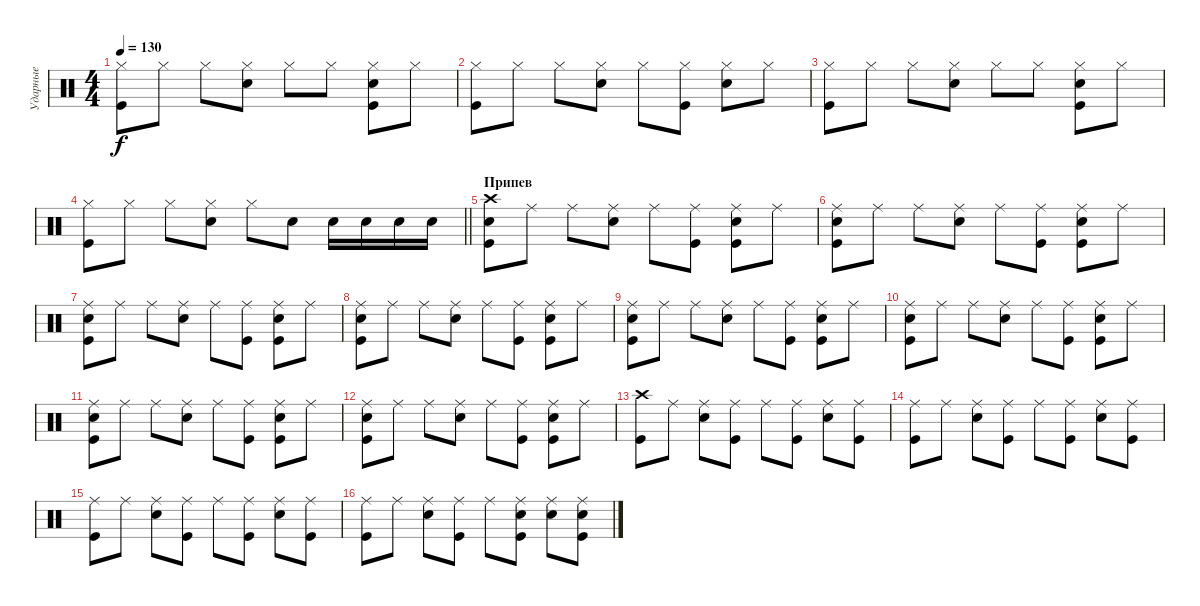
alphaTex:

\track ("Ударные" "Ударные") {instrument percussion}
\staff {score}
\articulation defaults
\ts (4 4)
\tempo 130
\clef neutral
\ks c
("Hi-Hat (closed)" "Kick (hit)").8{dy f} "Hi-Hat (closed)".8 "Hi-Hat (closed)".8 ("Hi-Hat (closed)" "Snare (hit) 2").8 "Hi-Hat (closed)".8 "Hi-Hat (closed)".8 ("Hi-Hat (closed)" "Snare (hit) 2" "Kick (hit)").8 "Hi-Hat (closed)".8 |
("Hi-Hat (closed)" "Kick (hit)").8 "Hi-Hat (closed)".8 "Hi-Hat (closed)".8 ("Hi-Hat (closed)" "Snare (hit) 2").8 "Hi-Hat (closed)".8 ("Hi-Hat (closed)" "Kick (hit)").8 ("Hi-Hat (closed)" "Snare (hit) 2").8 "Hi-Hat (closed)".8 |
("Hi-Hat (closed)" "Kick (hit)").8 "Hi-Hat (closed)".8 "Hi-Hat (closed)".8 ("Hi-Hat (closed)" "Snare (hit) 2").8 "Hi-Hat (closed)".8 "Hi-Hat (closed)".8 ("Hi-Hat (closed)" "Snare (hit) 2" "Kick (hit)").8 "Hi-Hat (closed)".8 |
\barLineRight lightlight
("Hi-Hat (closed)" "Kick (hit)").8 "Hi-Hat (closed)".8 "Hi-Hat (closed)".8 ("Hi-Hat (closed)" "Snare (hit) 2").8 "Hi-Hat (closed)".8 "Snare (hit) 2".8 "Snare (hit) 2".16 "Snare (hit) 2".16 "Snare (hit) 2".16 "Snare (hit) 2".16 |
\section ("" "Припев")
("Crash high (hit)" "Snare (hit) 2" "Kick (hit)").8 "Ride (middle)".8 "Ride (middle)".8 ("Ride (middle)" "Snare (hit) 2").8 "Ride (middle)".8 ("Ride (middle)" "Kick (hit)").8 ("Ride (middle)" "Snare (hit) 2" "Kick (hit)").8 "Ride (middle)".8 |
("Ride (middle)" "Snare (hit) 2" "Kick (hit)").8 "Ride (middle)".8 "Ride (middle)".8 ("Ride (middle)" "Snare (hit) 2").8 "Ride (middle)".8 ("Ride (middle)" "Kick (hit)").8 ("Ride (middle)" "Snare (hit) 2" "Kick (hit)").8 "Ride (middle)".8 |
("Ride (middle)" "Snare (hit) 2" "Kick (hit)").8 "Ride (middle)".8 "Ride (middle)".8 ("Ride (middle)" "Snare (hit) 2").8 "Ride (middle)".8 ("Ride (middle)" "Kick (hit)").8 ("Ride (middle)" "Snare (hit) 2" "Kick (hit)").8 "Ride (middle)".8 |
("Ride (middle)" "Snare (hit) 2" "Kick (hit)").8 "Ride (middle)".8 "Ride (middle)".8 ("Ride (middle)" "Snare (hit) 2").8 "Ride (middle)".8 ("Ride (middle)" "Kick (hit)").8 ("Ride (middle)" "Snare (hit) 2" "Kick (hit)").8 "Ride (middle)".8 |
("Ride (middle)" "Snare (hit) 2" "Kick (hit)").8 "Ride (middle)".8 "Ride (middle)".8 ("Ride (middle)" "Snare (hit) 2").8 "Ride (middle)".8 ("Ride (middle)" "Kick (hit)").8 ("Ride (middle)" "Snare (hit) 2" "Kick (hit)").8 "Ride (middle)".8 |
("Ride (middle)" "Snare (hit) 2" "Kick (hit)").8 "Ride (middle)".8 "Ride (middle)".8 ("Ride (middle)" "Snare (hit) 2").8 "Ride (middle)".8 ("Ride (middle)" "Kick (hit)").8 ("Ride (middle)" "Snare (hit) 2" "Kick (hit)").8 "Ride (middle)".8 |
("Ride (middle)" "Snare (hit) 2" "Kick (hit)").8 "Ride (middle)".8 "Ride (middle)".8 ("Ride (middle)" "Snare (hit) 2").8 "Ride (middle)".8 ("Ride (middle)" "Kick (hit)").8 ("Ride (middle)" "Snare (hit) 2" "Kick (hit)").8 "Ride (middle)".8 |
("Ride (middle)" "Snare (hit) 2" "Kick (hit)").8 "Ride (middle)".8 "Ride (middle)".8 ("Ride (middle)" "Snare (hit) 2").8 "Ride (middle)".8 ("Ride (middle)" "Kick (hit)").8 ("Ride (middle)" "Snare (hit) 2" "Kick (hit)").8 "Ride (middle)".8 |
("Crash high (hit)" "Kick (hit)").8 "Ride (middle)".8 ("Ride (middle)" "Snare (hit) 2").8 ("Ride (middle)" "Kick (hit)").8 "Ride (middle)".8 ("Ride (middle)" "Kick (hit)").8 ("Ride (middle)" "Snare (hit) 2").8 ("Ride (middle)" "Kick (hit)").8 |
("Ride (middle)" "Kick (hit)").8 "Ride (middle)".8 ("Ride (middle)" "Snare (hit) 2").8 ("Ride (middle)" "Kick (hit)").8 "Ride (middle)".8 ("Ride (middle)" "Kick (hit)").8 ("Ride (middle)" "Snare (hit) 2").8 ("Ride (middle)" "Kick (hit)").8 |
("Ride (middle)" "Kick (hit)").8 "Ride (middle)".8 ("Ride (middle)" "Snare (hit) 2").8 ("Ride (middle)" "Kick (hit)").8 "Ride (middle)".8 ("Ride (middle)" "Kick (hit)").8 ("Ride (middle)" "Snare (hit) 2").8 ("Ride (middle)" "Kick (hit)").8 |
("Ride (middle)" "Kick (hit)").8 "Ride (middle)".8 ("Ride (middle)" "Snare (hit) 2").8 ("Ride (middle)" "Kick (hit)").8 "Ride (middle)".8 ("Ride (middle)" "Snare (hit) 2" "Kick (hit)").8 ("Ride (middle)" "Snare (hit) 2").8 ("Ride (middle)" "Snare (hit) 2" "Kick (hit)").8
